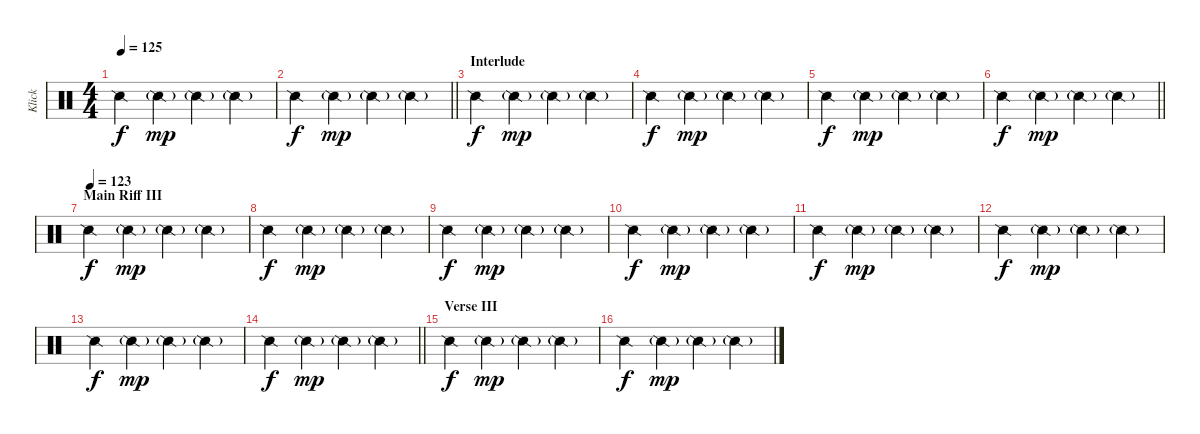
\track ("Klick" "Klick") {instrument percussion}
\staff {score}
\articulation defaults
\ts (4 4)
\tempo 125
\clef neutral
\ks c "Snare (side stick) 2".4{dy f} "Snare (side stick) 2"{g}.4{dy mp} "Snare (side stick) 2"{g}.4 "Snare (side stick) 2"{g}.4
|
\barLineRight lightlight "Snare (side stick) 2".4{dy f} "Snare (side stick) 2"{g}.4{dy mp} "Snare (side stick) 2"{g}.4 "Snare (side stick) 2"{g}.4
|
\section ("" "Interlude")
"Snare (side stick) 2".4{dy f} "Snare (side stick) 2"{g}.4{dy mp} "Snare (side stick) 2"{g}.4 "Snare (side stick) 2"{g}.4 |
"Snare (side stick) 2".4{dy f} "Snare (side stick) 2"{g}.4{dy mp} "Snare (side stick) 2"{g}.4 "Snare (side stick) 2"{g}.4 |
"Snare (side stick) 2".4{dy f} "Snare (side stick) 2"{g}.4{dy mp} "Snare (side stick) 2"{g}.4 "Snare (side stick) 2"{g}.4 |
\barLineRight lightlight "Snare (side stick) 2".4{dy f} "Snare (side stick) 2"{g}.4{dy mp} "Snare (side stick) 2"{g}.4 "Snare (side stick) 2"{g}.4
|
\section ("" "Main Riff III")
\tempo (123)
"Snare (side stick) 2".4{dy f} "Snare (side stick) 2"{g}.4{dy mp} "Snare (side stick) 2"{g}.4 "Snare (side stick) 2"{g}.4 |
"Snare (side stick) 2".4{dy f} "Snare (side stick) 2"{g}.4{dy mp} "Snare (side stick) 2"{g}.4 "Snare (side stick) 2"{g}.4 |
"Snare (side stick) 2".4{dy f} "Snare (side stick) 2"{g}.4{dy mp} "Snare (side stick) 2"{g}.4 "Snare (side stick) 2"{g}.4 |
"Snare (side stick) 2".4{dy f} "Snare (side stick) 2"{g}.4{dy mp} "Snare (side stick) 2"{g}.4 "Snare (side stick) 2"{g}.4 |
"Snare (side stick) 2".4{dy f} "Snare (side stick) 2"{g}.4{dy mp} "Snare (side stick) 2"{g}.4 "Snare (side stick) 2"{g}.4 |
"Snare (side stick) 2".4{dy f} "Snare (side stick) 2"{g}.4{dy mp} "Snare (side stick) 2"{g}.4 "Snare (side stick) 2"{g}.4 |
"Snare (side stick) 2".4{dy f} "Snare (side stick) 2"{g}.4{dy mp} "Snare (side stick) 2"{g}.4 "Snare (side stick) 2"{g}.4 |
\barLineRight lightlight "Snare (side stick) 2".4{dy f} "Snare (side stick) 2"{g}.4{dy mp} "Snare (side stick) 2"{g}.4 "Snare (side stick) 2"{g}.4
|
\section ("" "Verse III")
"Snare (side stick) 2".4{dy f} "Snare (side stick) 2"{g}.4{dy mp} "Snare (side stick) 2"{g}.4 "Snare (side stick) 2"{g}.4 |
"Snare (side stick) 2".4{dy f} "Snare (side stick) 2"{g}.4{dy mp} "Snare (side stick) 2"{g}.4 "Snare (side stick) 2"{g}.4
